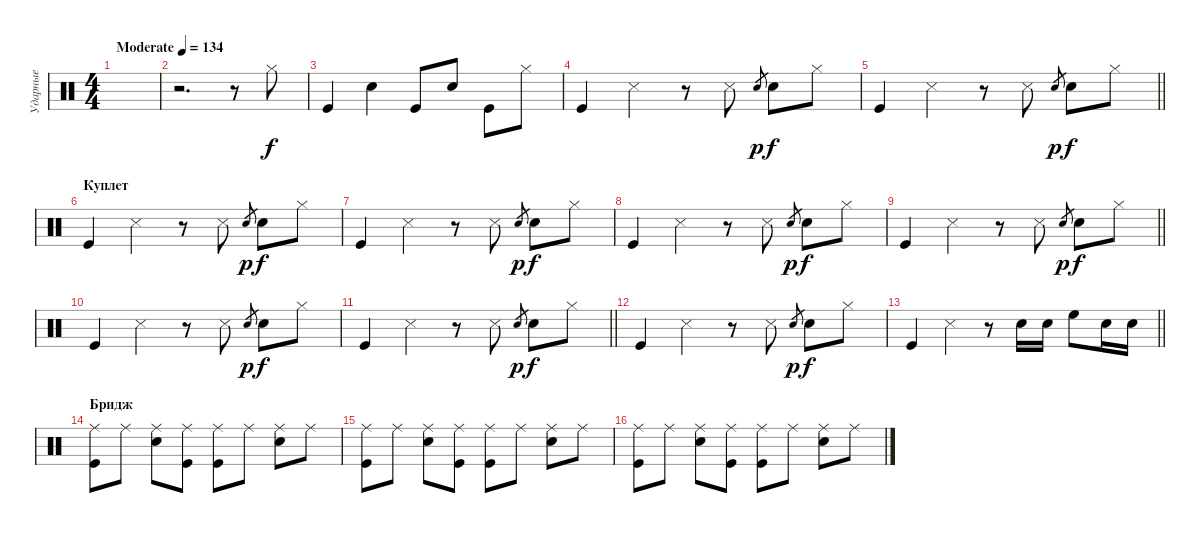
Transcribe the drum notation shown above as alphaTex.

\track ("Ударные" "Ударные") {instrument percussion}
\staff {score}
\articulation defaults
\ts (4 4)
\tempo (134 "Moderate")
\clef neutral
\ks c
|
r.2{d} r.8 "Hi-Hat (closed)".8 |
"Kick (hit)".4 "Snare (hit) 2".4 "Kick (hit)".8 "Snare (hit) 2".8 "Kick (hit)".8 "Hi-Hat (closed)".8 |
"Kick (hit)".4 "Snare (side stick) 3".4 r.8 "Snare (side stick) 3".8 "Snare (hit) 2".8{gr dy p} "Snare (hit) 2".8{dy f} "Hi-Hat (closed)".8 |
\barLineRight lightlight "Kick (hit)".4 "Snare (side stick) 3".4
r.8 "Snare (side stick) 3".8 "Snare (hit) 2".8{gr dy p} "Snare (hit) 2".8{dy f} "Hi-Hat (closed)".8 |
\section ("" "Куплет")
"Kick (hit)".4 "Snare (side stick) 3".4 r.8 "Snare (side stick) 3".8 "Snare (hit) 2".8{gr dy p} "Snare (hit) 2".8{dy f} "Hi-Hat (closed)".8 |
"Kick (hit)".4 "Snare (side stick) 3".4 r.8 "Snare (side stick) 3".8 "Snare (hit) 2".8{gr dy p} "Snare (hit) 2".8{dy f} "Hi-Hat (closed)".8 |
"Kick (hit)".4 "Snare (side stick) 3".4 r.8 "Snare (side stick) 3".8 "Snare (hit) 2".8{gr dy p} "Snare (hit) 2".8{dy f} "Hi-Hat (closed)".8 |
\barLineRight lightlight "Kick (hit)".4 "Snare (side stick) 3".4
r.8 "Snare (side stick) 3".8 "Snare (hit) 2".8{gr dy p} "Snare (hit) 2".8{dy f} "Hi-Hat (closed)".8 |
"Kick (hit)".4 "Snare (side stick) 3".4 r.8 "Snare (side stick) 3".8 "Snare (hit) 2".8{gr dy p} "Snare (hit) 2".8{dy f} "Hi-Hat (closed)".8 |
\barLineRight lightlight "Kick (hit)".4 "Snare (side stick) 3".4
r.8 "Snare (side stick) 3".8 "Snare (hit) 2".8{gr dy p} "Snare (hit) 2".8{dy f} "Hi-Hat (closed)".8 |
"Kick (hit)".4 "Snare (side stick) 3".4 r.8 "Snare (side stick) 3".8 "Snare (hit) 2".8{gr dy p} "Snare (hit) 2".8{dy f} "Hi-Hat (closed)".8 |
\barLineRight lightlight "Kick (hit)".4 "Snare (side stick) 3".4
r.8 "Snare (hit) 2".16 "Snare (hit) 2".16 "High Floor Tom (hit)".8 "Snare (hit) 2".16 "Snare (hit) 2".16 |
\section ("" "Бридж")
("Ride (middle)" "Kick (hit)").8 "Ride (middle)".8 ("Ride (middle)" "Snare (hit) 2").8 ("Ride (middle)" "Kick (hit)").8 ("Ride (middle)" "Kick (hit)").8 "Ride (middle)".8 ("Ride (middle)" "Snare (hit) 2").8 "Ride (middle)".8 |
("Ride (middle)" "Kick (hit)").8 "Ride (middle)".8 ("Ride (middle)" "Snare (hit) 2").8 ("Ride (middle)" "Kick (hit)").8 ("Ride (middle)" "Kick (hit)").8 "Ride (middle)".8 ("Ride (middle)" "Snare (hit) 2").8 "Ride (middle)".8 |
("Ride (middle)" "Kick (hit)").8 "Ride (middle)".8 ("Ride (middle)" "Snare (hit) 2").8 ("Ride (middle)" "Kick (hit)").8 ("Ride (middle)" "Kick (hit)").8 "Ride (middle)".8 ("Ride (middle)" "Snare (hit) 2").8 "Ride (middle)".8
